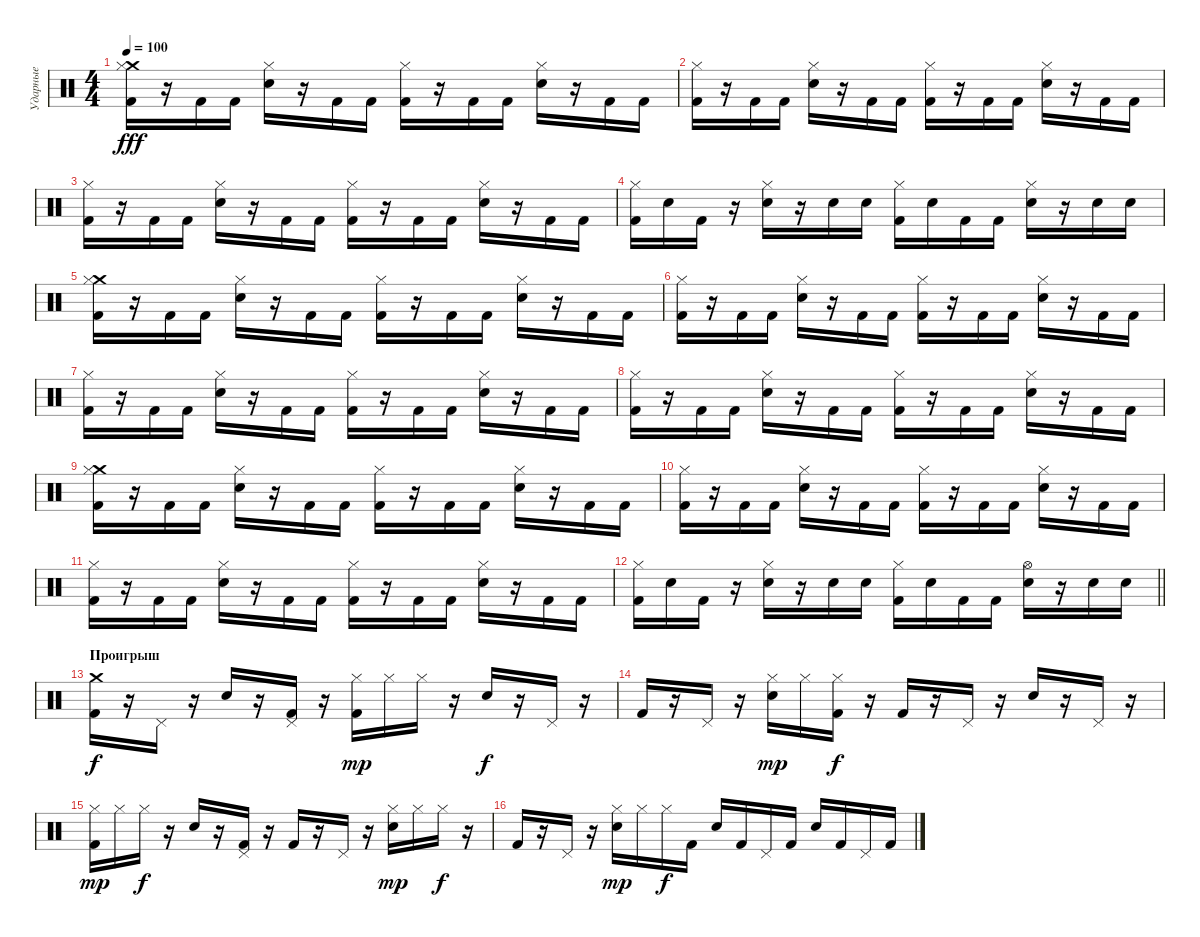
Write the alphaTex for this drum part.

\track ("Ударные" "Ударные") {instrument percussion}
\staff {score}
\articulation defaults
\ts (4 4)
\tempo 100
\clef neutral
\ks aminor
("Crash medium (hit)" "Kick (hit) 2" "Hi-Hat (closed)").16{dy fff} r.16 "Kick (hit) 2".16 "Kick (hit) 2".16 ("Electric Snare (hit)" "Hi-Hat (closed)").16 r.16 "Kick (hit) 2".16 "Kick (hit) 2".16 ("Kick (hit) 2" "Hi-Hat (closed)").16 r.16 "Kick (hit) 2".16 "Kick (hit) 2".16 ("Electric Snare (hit)" "Hi-Hat (closed)").16 r.16 "Kick (hit) 2".16 "Kick (hit) 2".16 |
("Kick (hit) 2" "Hi-Hat (closed)").16 r.16 "Kick (hit) 2".16 "Kick (hit) 2".16 ("Electric Snare (hit)" "Hi-Hat (closed)").16 r.16 "Kick (hit) 2".16 "Kick (hit) 2".16 ("Kick (hit) 2" "Hi-Hat (closed)").16 r.16 "Kick (hit) 2".16 "Kick (hit) 2".16 ("Electric Snare (hit)" "Hi-Hat (closed)").16 r.16 "Kick (hit) 2".16 "Kick (hit) 2".16 |
("Kick (hit) 2" "Hi-Hat (closed)").16 r.16 "Kick (hit) 2".16 "Kick (hit) 2".16 ("Electric Snare (hit)" "Hi-Hat (closed)").16 r.16 "Kick (hit) 2".16 "Kick (hit) 2".16 ("Kick (hit) 2" "Hi-Hat (closed)").16 r.16 "Kick (hit) 2".16 "Kick (hit) 2".16 ("Electric Snare (hit)" "Hi-Hat (closed)").16 r.16 "Kick (hit) 2".16 "Kick (hit) 2".16 |
("Kick (hit) 2" "Hi-Hat (closed)").16 "Electric Snare (hit)".16 "Kick (hit) 2".16 r.16 ("Electric Snare (hit)" "Hi-Hat (closed)").16 r.16 "Electric Snare (hit)".16 "Electric Snare (hit)".16 ("Kick (hit) 2" "Hi-Hat (closed)").16 "Electric Snare (hit)".16 "Kick (hit) 2".16 "Kick (hit) 2".16 ("Electric Snare (hit)" "Hi-Hat (closed)").16 r.16 "Electric Snare (hit)".16 "Electric Snare (hit)".16 |
("Crash medium (hit)" "Kick (hit) 2" "Hi-Hat (closed)").16 r.16 "Kick (hit) 2".16 "Kick (hit) 2".16 ("Electric Snare (hit)" "Hi-Hat (closed)").16 r.16 "Kick (hit) 2".16 "Kick (hit) 2".16 ("Kick (hit) 2" "Hi-Hat (closed)").16 r.16 "Kick (hit) 2".16 "Kick (hit) 2".16 ("Electric Snare (hit)" "Hi-Hat (closed)").16 r.16 "Kick (hit) 2".16 "Kick (hit) 2".16 |
("Kick (hit) 2" "Hi-Hat (closed)").16 r.16 "Kick (hit) 2".16 "Kick (hit) 2".16 ("Electric Snare (hit)" "Hi-Hat (closed)").16 r.16 "Kick (hit) 2".16 "Kick (hit) 2".16 ("Kick (hit) 2" "Hi-Hat (closed)").16 r.16 "Kick (hit) 2".16 "Kick (hit) 2".16 ("Electric Snare (hit)" "Hi-Hat (closed)").16 r.16 "Kick (hit) 2".16 "Kick (hit) 2".16 |
("Kick (hit) 2" "Hi-Hat (closed)").16 r.16 "Kick (hit) 2".16 "Kick (hit) 2".16 ("Electric Snare (hit)" "Hi-Hat (closed)").16 r.16 "Kick (hit) 2".16 "Kick (hit) 2".16 ("Kick (hit) 2" "Hi-Hat (closed)").16 r.16 "Kick (hit) 2".16 "Kick (hit) 2".16 ("Electric Snare (hit)" "Hi-Hat (closed)").16 r.16 "Kick (hit) 2".16 "Kick (hit) 2".16 |
("Kick (hit) 2" "Hi-Hat (closed)").16 r.16 "Kick (hit) 2".16 "Kick (hit) 2".16 ("Electric Snare (hit)" "Hi-Hat (closed)").16 r.16 "Kick (hit) 2".16 "Kick (hit) 2".16 ("Kick (hit) 2" "Hi-Hat (closed)").16 r.16 "Kick (hit) 2".16 "Kick (hit) 2".16 ("Electric Snare (hit)" "Hi-Hat (closed)").16 r.16 "Kick (hit) 2".16 "Kick (hit) 2".16 |
("Crash medium (hit)" "Kick (hit) 2" "Hi-Hat (closed)").16 r.16 "Kick (hit) 2".16 "Kick (hit) 2".16 ("Electric Snare (hit)" "Hi-Hat (closed)").16 r.16 "Kick (hit) 2".16 "Kick (hit) 2".16 ("Kick (hit) 2" "Hi-Hat (closed)").16 r.16 "Kick (hit) 2".16 "Kick (hit) 2".16 ("Electric Snare (hit)" "Hi-Hat (closed)").16 r.16 "Kick (hit) 2".16 "Kick (hit) 2".16 |
("Kick (hit) 2" "Hi-Hat (closed)").16 r.16 "Kick (hit) 2".16 "Kick (hit) 2".16 ("Electric Snare (hit)" "Hi-Hat (closed)").16 r.16 "Kick (hit) 2".16 "Kick (hit) 2".16 ("Kick (hit) 2" "Hi-Hat (closed)").16 r.16 "Kick (hit) 2".16 "Kick (hit) 2".16 ("Electric Snare (hit)" "Hi-Hat (closed)").16 r.16 "Kick (hit) 2".16 "Kick (hit) 2".16 |
("Kick (hit) 2" "Hi-Hat (closed)").16 r.16 "Kick (hit) 2".16 "Kick (hit) 2".16 ("Electric Snare (hit)" "Hi-Hat (closed)").16 r.16 "Kick (hit) 2".16 "Kick (hit) 2".16 ("Kick (hit) 2" "Hi-Hat (closed)").16 r.16 "Kick (hit) 2".16 "Kick (hit) 2".16 ("Electric Snare (hit)" "Hi-Hat (closed)").16 r.16 "Kick (hit) 2".16 "Kick (hit) 2".16 |
\barLineRight lightlight
("Kick (hit) 2" "Hi-Hat (closed)").16 "Electric Snare (hit)".16 "Kick (hit) 2".16 r.16 ("Electric Snare (hit)" "Hi-Hat (closed)").16 r.16 "Electric Snare (hit)".16 "Electric Snare (hit)".16 ("Kick (hit) 2" "Hi-Hat (closed)").16 "Electric Snare (hit)".16 "Kick (hit) 2".16 "Kick (hit) 2".16 ("Electric Snare (hit)" "Hi-Hat (open)").16 r.16 "Electric Snare (hit)".16 "Electric Snare (hit)".16 |
\section ("" "Проигрыш")
("Crash medium (hit)" "Kick (hit) 2").16{dy f} r.16 "Pedal Hi-Hat (hit)".16 r.16 "Electric Snare (hit)".16 r.16 ("Pedal Hi-Hat (hit)" "Kick (hit) 2").16 r.16 ("Hi-Hat (closed)" "Kick (hit) 2").16{dy mp} "Hi-Hat (closed)".16 "Hi-Hat (closed)".16 r.16 "Electric Snare (hit)".16{dy f} r.16 "Pedal Hi-Hat (hit)".16 r.16 |
"Kick (hit) 2".16 r.16 "Pedal Hi-Hat (hit)".16 r.16 ("Hi-Hat (closed)" "Electric Snare (hit)").16{dy mp} "Hi-Hat (closed)".16 ("Hi-Hat (closed)" "Kick (hit) 2").16{dy f} r.16 "Kick (hit) 2".16 r.16 "Pedal Hi-Hat (hit)".16 r.16 "Electric Snare (hit)".16 r.16 "Pedal Hi-Hat (hit)".16 r.16 |
("Hi-Hat (closed)" "Kick (hit) 2").16{dy mp} "Hi-Hat (closed)".16 "Hi-Hat (closed)".16{dy f} r.16 "Electric Snare (hit)".16 r.16 ("Pedal Hi-Hat (hit)" "Kick (hit) 2").16 r.16 "Kick (hit) 2".16 r.16 "Pedal Hi-Hat (hit)".16 r.16 ("Hi-Hat (closed)" "Electric Snare (hit)").16{dy mp} "Hi-Hat (closed)".16 "Hi-Hat (closed)".16{dy f} r.16 |
"Kick (hit) 2".16 r.16 "Pedal Hi-Hat (hit)".16 r.16 ("Hi-Hat (closed)" "Electric Snare (hit)").16{dy mp} "Hi-Hat (closed)".16 "Hi-Hat (closed)".16{dy f} "Kick (hit) 2".16 "Electric Snare (hit)".16 "Kick (hit) 2".16 "Pedal Hi-Hat (hit)".16 "Kick (hit) 2".16 "Electric Snare (hit)".16 "Kick (hit) 2".16 "Pedal Hi-Hat (hit)".16 "Kick (hit) 2".16
